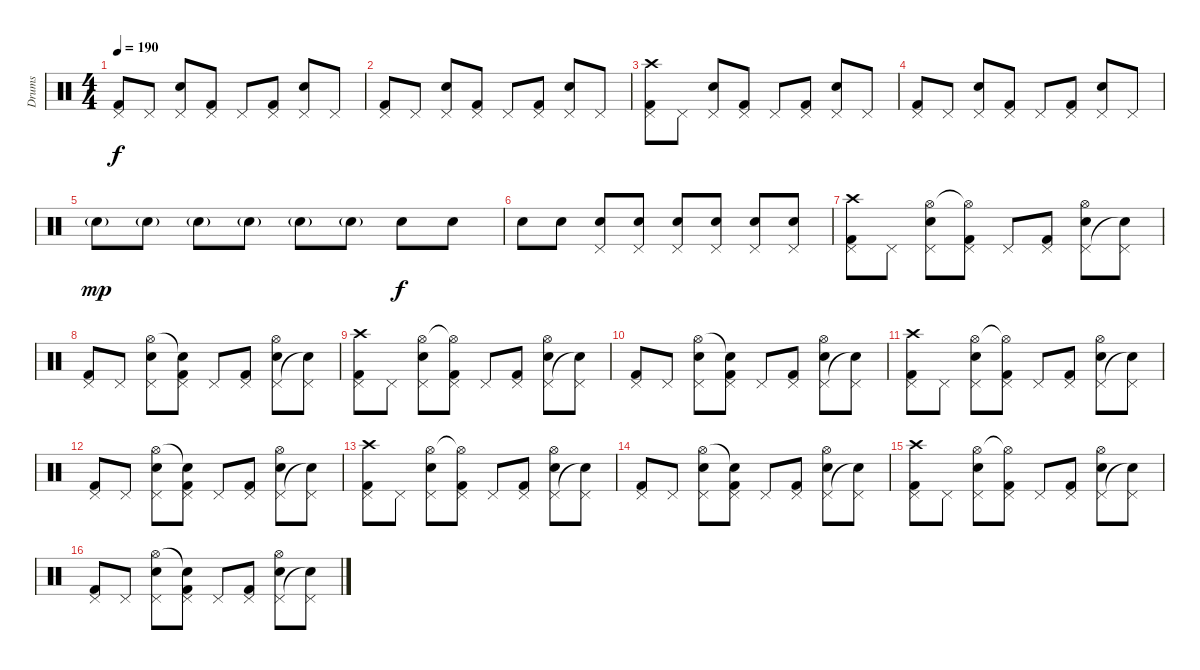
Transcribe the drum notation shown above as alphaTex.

\track ("Drums" "Drums") {instrument percussion}
\staff {score}
\articulation defaults
\ts (4 4)
\tempo 190
\clef neutral
\ks c
("Kick (hit) 2" "Pedal Hi-Hat (hit)").8{dy f} "Pedal Hi-Hat (hit)".8 ("Snare (hit) 2" "Pedal Hi-Hat (hit)").8 ("Kick (hit) 2" "Pedal Hi-Hat (hit)").8 "Pedal Hi-Hat (hit)".8 ("Kick (hit) 2" "Pedal Hi-Hat (hit)").8 ("Snare (hit) 2" "Pedal Hi-Hat (hit)").8 "Pedal Hi-Hat (hit)".8 |
("Kick (hit) 2" "Pedal Hi-Hat (hit)").8 "Pedal Hi-Hat (hit)".8 ("Snare (hit) 2" "Pedal Hi-Hat (hit)").8 ("Kick (hit) 2" "Pedal Hi-Hat (hit)").8 "Pedal Hi-Hat (hit)".8 ("Kick (hit) 2" "Pedal Hi-Hat (hit)").8 ("Snare (hit) 2" "Pedal Hi-Hat (hit)").8 "Pedal Hi-Hat (hit)".8 |
("Kick (hit) 2" "Pedal Hi-Hat (hit)" "Crash high (hit)").8 "Pedal Hi-Hat (hit)".8 ("Snare (hit) 2" "Pedal Hi-Hat (hit)").8 ("Kick (hit) 2" "Pedal Hi-Hat (hit)").8 "Pedal Hi-Hat (hit)".8 ("Kick (hit) 2" "Pedal Hi-Hat (hit)").8 ("Snare (hit) 2" "Pedal Hi-Hat (hit)").8 "Pedal Hi-Hat (hit)".8 |
("Kick (hit) 2" "Pedal Hi-Hat (hit)").8 "Pedal Hi-Hat (hit)".8 ("Snare (hit) 2" "Pedal Hi-Hat (hit)").8 ("Kick (hit) 2" "Pedal Hi-Hat (hit)").8 "Pedal Hi-Hat (hit)".8 ("Kick (hit) 2" "Pedal Hi-Hat (hit)").8 ("Snare (hit) 2" "Pedal Hi-Hat (hit)").8 "Pedal Hi-Hat (hit)".8 |
"Snare (hit) 2"{g}.8{dy mp} "Snare (hit) 2"{g}.8 "Snare (hit) 2"{g}.8 "Snare (hit) 2"{g}.8 "Snare (hit) 2"{g}.8 "Snare (hit) 2"{g}.8 "Snare (hit) 2".8{dy f} "Snare (hit) 2".8 |
"Snare (hit) 2".8 "Snare (hit) 2".8 ("Snare (hit) 2" "Pedal Hi-Hat (hit)").8 ("Snare (hit) 2" "Pedal Hi-Hat (hit)").8 ("Snare (hit) 2" "Pedal Hi-Hat (hit)").8 ("Snare (hit) 2" "Pedal Hi-Hat (hit)").8 ("Snare (hit) 2" "Pedal Hi-Hat (hit)").8 ("Snare (hit) 2" "Pedal Hi-Hat (hit)").8 |
("Kick (hit) 2" "Pedal Hi-Hat (hit)" "Crash high (hit)").8 "Pedal Hi-Hat (hit)".8 ("Snare (hit) 2" "Pedal Hi-Hat (hit)" "Hi-Hat (open)").8 ("Kick (hit) 2" "Pedal Hi-Hat (hit)" "Hi-Hat (open)"{t}).8 "Pedal Hi-Hat (hit)".8 ("Kick (hit) 2" "Pedal Hi-Hat (hit)").8 ("Snare (hit) 2" "Pedal Hi-Hat (hit)" "Hi-Hat (open)").8 ("Pedal Hi-Hat (hit)" "Snare (hit)"{t}).8 |
("Kick (hit) 2" "Pedal Hi-Hat (hit)").8 "Pedal Hi-Hat (hit)".8 ("Snare (hit) 2" "Pedal Hi-Hat (hit)" "Hi-Hat (open)").8 ("Kick (hit) 2" "Pedal Hi-Hat (hit)" "Snare (hit)"{t}).8 "Pedal Hi-Hat (hit)".8 ("Kick (hit) 2" "Pedal Hi-Hat (hit)").8 ("Snare (hit) 2" "Pedal Hi-Hat (hit)" "Hi-Hat (open)").8 ("Pedal Hi-Hat (hit)" "Snare (hit)"{t}).8 |
("Kick (hit) 2" "Pedal Hi-Hat (hit)" "Crash high (hit)").8 "Pedal Hi-Hat (hit)".8 ("Snare (hit) 2" "Pedal Hi-Hat (hit)" "Hi-Hat (open)").8 ("Kick (hit) 2" "Pedal Hi-Hat (hit)" "Hi-Hat (open)"{t}).8 "Pedal Hi-Hat (hit)".8 ("Kick (hit) 2" "Pedal Hi-Hat (hit)").8 ("Snare (hit) 2" "Pedal Hi-Hat (hit)" "Hi-Hat (open)").8 ("Pedal Hi-Hat (hit)" "Snare (hit)"{t}).8 |
("Kick (hit) 2" "Pedal Hi-Hat (hit)").8 "Pedal Hi-Hat (hit)".8 ("Snare (hit) 2" "Pedal Hi-Hat (hit)" "Hi-Hat (open)").8 ("Kick (hit) 2" "Pedal Hi-Hat (hit)" "Snare (hit)"{t}).8 "Pedal Hi-Hat (hit)".8 ("Kick (hit) 2" "Pedal Hi-Hat (hit)").8 ("Snare (hit) 2" "Pedal Hi-Hat (hit)" "Hi-Hat (open)").8 ("Pedal Hi-Hat (hit)" "Snare (hit)"{t}).8 |
("Kick (hit) 2" "Pedal Hi-Hat (hit)" "Crash high (hit)").8 "Pedal Hi-Hat (hit)".8 ("Snare (hit) 2" "Pedal Hi-Hat (hit)" "Hi-Hat (open)").8 ("Kick (hit) 2" "Pedal Hi-Hat (hit)" "Hi-Hat (open)"{t}).8 "Pedal Hi-Hat (hit)".8 ("Kick (hit) 2" "Pedal Hi-Hat (hit)").8 ("Snare (hit) 2" "Pedal Hi-Hat (hit)" "Hi-Hat (open)").8 ("Pedal Hi-Hat (hit)" "Snare (hit)"{t}).8 |
("Kick (hit) 2" "Pedal Hi-Hat (hit)").8 "Pedal Hi-Hat (hit)".8 ("Snare (hit) 2" "Pedal Hi-Hat (hit)" "Hi-Hat (open)").8 ("Kick (hit) 2" "Pedal Hi-Hat (hit)" "Snare (hit)"{t}).8 "Pedal Hi-Hat (hit)".8 ("Kick (hit) 2" "Pedal Hi-Hat (hit)").8 ("Snare (hit) 2" "Pedal Hi-Hat (hit)" "Hi-Hat (open)").8 ("Pedal Hi-Hat (hit)" "Snare (hit)"{t}).8 |
("Kick (hit) 2" "Pedal Hi-Hat (hit)" "Crash high (hit)").8 "Pedal Hi-Hat (hit)".8 ("Snare (hit) 2" "Pedal Hi-Hat (hit)" "Hi-Hat (open)").8 ("Kick (hit) 2" "Pedal Hi-Hat (hit)" "Hi-Hat (open)"{t}).8 "Pedal Hi-Hat (hit)".8 ("Kick (hit) 2" "Pedal Hi-Hat (hit)").8 ("Snare (hit) 2" "Pedal Hi-Hat (hit)" "Hi-Hat (open)").8 ("Pedal Hi-Hat (hit)" "Snare (hit)"{t}).8 |
("Kick (hit) 2" "Pedal Hi-Hat (hit)").8 "Pedal Hi-Hat (hit)".8 ("Snare (hit) 2" "Pedal Hi-Hat (hit)" "Hi-Hat (open)").8 ("Kick (hit) 2" "Pedal Hi-Hat (hit)" "Snare (hit)"{t}).8 "Pedal Hi-Hat (hit)".8 ("Kick (hit) 2" "Pedal Hi-Hat (hit)").8 ("Snare (hit) 2" "Pedal Hi-Hat (hit)" "Hi-Hat (open)").8 ("Pedal Hi-Hat (hit)" "Snare (hit)"{t}).8 |
("Kick (hit) 2" "Pedal Hi-Hat (hit)" "Crash high (hit)").8 "Pedal Hi-Hat (hit)".8 ("Snare (hit) 2" "Pedal Hi-Hat (hit)" "Hi-Hat (open)").8 ("Kick (hit) 2" "Pedal Hi-Hat (hit)" "Hi-Hat (open)"{t}).8 "Pedal Hi-Hat (hit)".8 ("Kick (hit) 2" "Pedal Hi-Hat (hit)").8 ("Snare (hit) 2" "Pedal Hi-Hat (hit)" "Hi-Hat (open)").8 ("Pedal Hi-Hat (hit)" "Snare (hit)"{t}).8 |
("Kick (hit) 2" "Pedal Hi-Hat (hit)").8 "Pedal Hi-Hat (hit)".8 ("Snare (hit) 2" "Pedal Hi-Hat (hit)" "Hi-Hat (open)").8 ("Kick (hit) 2" "Pedal Hi-Hat (hit)" "Snare (hit)"{t}).8 "Pedal Hi-Hat (hit)".8 ("Kick (hit) 2" "Pedal Hi-Hat (hit)").8 ("Snare (hit) 2" "Pedal Hi-Hat (hit)" "Hi-Hat (open)").8 ("Pedal Hi-Hat (hit)" "Snare (hit)"{t}).8
